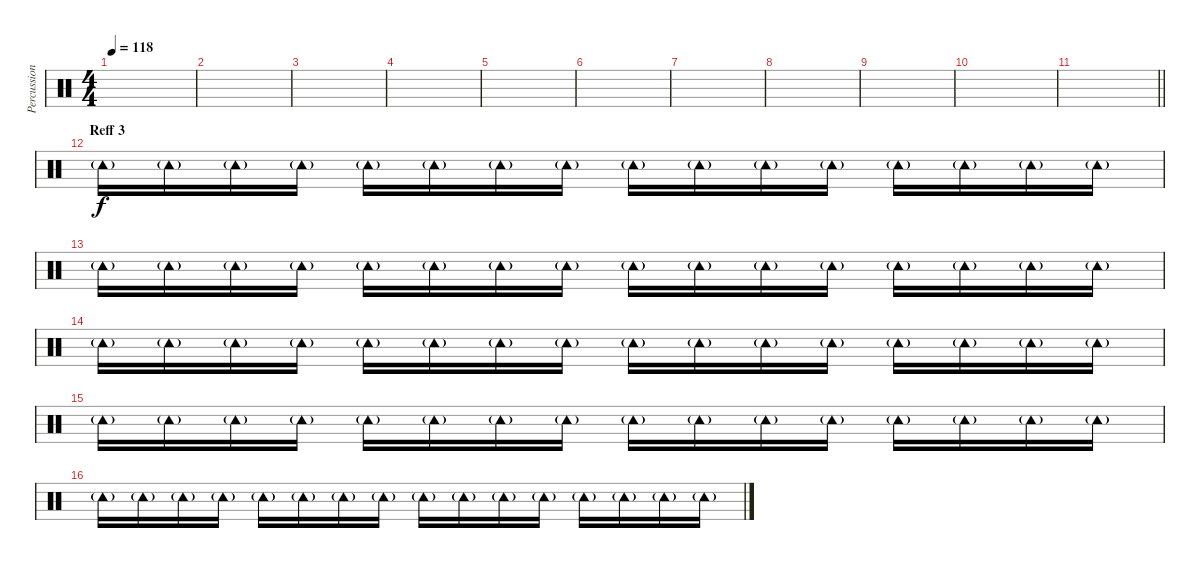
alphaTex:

\track ("Percussion 2" "Percussion") {instrument percussion}
\staff {score}
\articulation defaults
\ts (4 4)
\tempo 118
\clef neutral
\ks c
|
|
|
|
|
|
|
|
|
|
\barLineRight lightlight
|
\section ("" "Reff 3")
"Tambourine (hit)"{g}.16 "Tambourine (hit)"{g}.16 "Tambourine (hit)"{g}.16 "Tambourine (hit)"{g}.16 "Tambourine (hit)"{g}.16 "Tambourine (hit)"{g}.16 "Tambourine (hit)"{g}.16 "Tambourine (hit)"{g}.16 "Tambourine (hit)"{g}.16 "Tambourine (hit)"{g}.16 "Tambourine (hit)"{g}.16 "Tambourine (hit)"{g}.16 "Tambourine (hit)"{g}.16 "Tambourine (hit)"{g}.16 "Tambourine (hit)"{g}.16 "Tambourine (hit)"{g}.16 |
"Tambourine (hit)"{g}.16 "Tambourine (hit)"{g}.16 "Tambourine (hit)"{g}.16 "Tambourine (hit)"{g}.16 "Tambourine (hit)"{g}.16 "Tambourine (hit)"{g}.16 "Tambourine (hit)"{g}.16 "Tambourine (hit)"{g}.16 "Tambourine (hit)"{g}.16 "Tambourine (hit)"{g}.16 "Tambourine (hit)"{g}.16 "Tambourine (hit)"{g}.16 "Tambourine (hit)"{g}.16 "Tambourine (hit)"{g}.16 "Tambourine (hit)"{g}.16 "Tambourine (hit)"{g}.16 |
"Tambourine (hit)"{g}.16 "Tambourine (hit)"{g}.16 "Tambourine (hit)"{g}.16 "Tambourine (hit)"{g}.16 "Tambourine (hit)"{g}.16 "Tambourine (hit)"{g}.16 "Tambourine (hit)"{g}.16 "Tambourine (hit)"{g}.16 "Tambourine (hit)"{g}.16 "Tambourine (hit)"{g}.16 "Tambourine (hit)"{g}.16 "Tambourine (hit)"{g}.16 "Tambourine (hit)"{g}.16 "Tambourine (hit)"{g}.16 "Tambourine (hit)"{g}.16 "Tambourine (hit)"{g}.16 |
"Tambourine (hit)"{g}.16 "Tambourine (hit)"{g}.16 "Tambourine (hit)"{g}.16 "Tambourine (hit)"{g}.16 "Tambourine (hit)"{g}.16 "Tambourine (hit)"{g}.16 "Tambourine (hit)"{g}.16 "Tambourine (hit)"{g}.16 "Tambourine (hit)"{g}.16 "Tambourine (hit)"{g}.16 "Tambourine (hit)"{g}.16 "Tambourine (hit)"{g}.16 "Tambourine (hit)"{g}.16 "Tambourine (hit)"{g}.16 "Tambourine (hit)"{g}.16 "Tambourine (hit)"{g}.16 |
"Tambourine (hit)"{g}.16 "Tambourine (hit)"{g}.16 "Tambourine (hit)"{g}.16 "Tambourine (hit)"{g}.16 "Tambourine (hit)"{g}.16 "Tambourine (hit)"{g}.16 "Tambourine (hit)"{g}.16 "Tambourine (hit)"{g}.16 "Tambourine (hit)"{g}.16 "Tambourine (hit)"{g}.16 "Tambourine (hit)"{g}.16 "Tambourine (hit)"{g}.16 "Tambourine (hit)"{g}.16 "Tambourine (hit)"{g}.16 "Tambourine (hit)"{g}.16 "Tambourine (hit)"{g}.16
